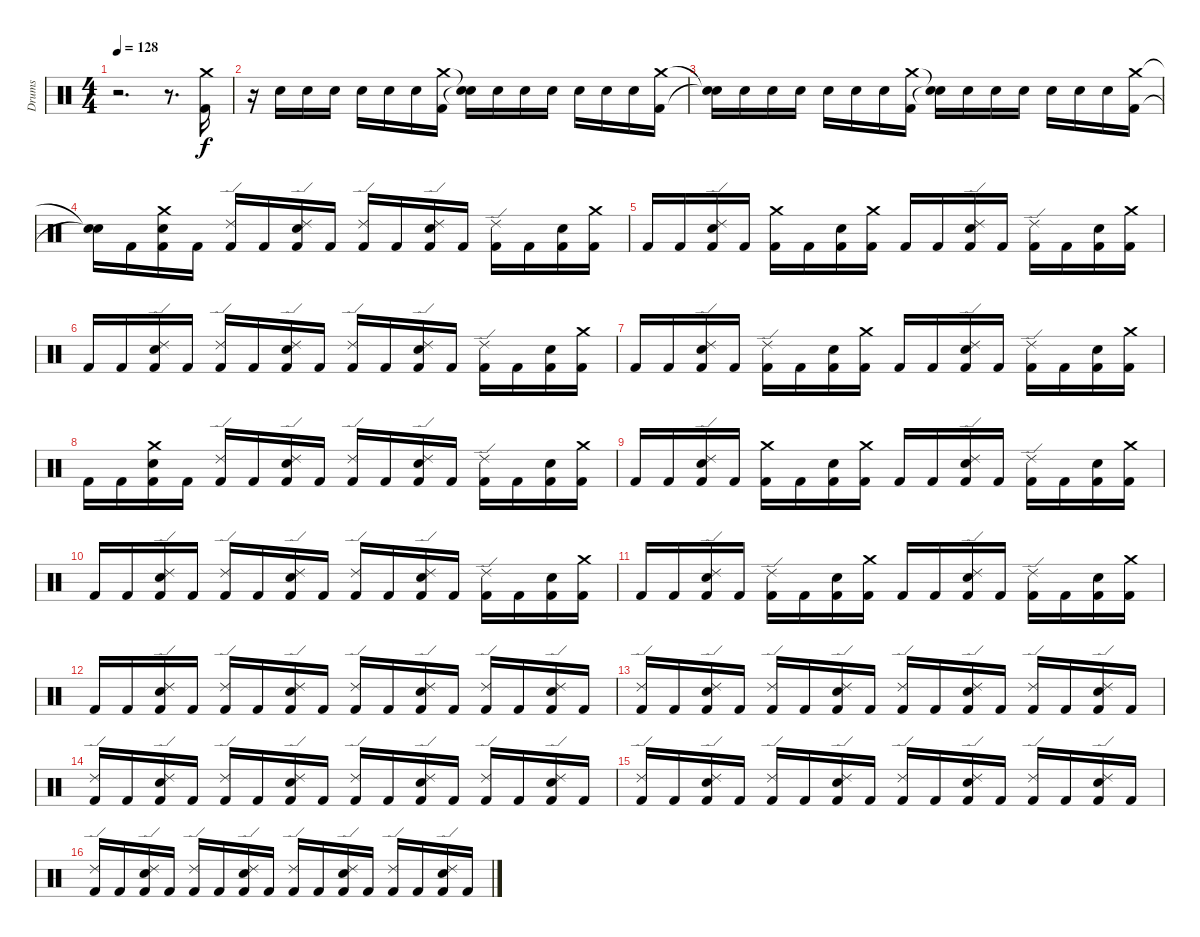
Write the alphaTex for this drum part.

\track ("Drums" "Drums") {instrument percussion}
\staff {score}
\articulation defaults
\ts (4 4)
\tempo 128
\clef neutral
\ks c
r.2{d dy f} r.8{d} ("Crash medium (hit)" "Kick (hit) 2").16 |
r.16 "Snare (hit) 2".16 "Snare (hit) 2".16 "Snare (hit) 2".16 "Snare (hit) 2".16 "Snare (hit) 2".16 "Snare (hit) 2".16 ("Crash medium (hit)" "Kick (hit) 2").16 ("Snare (hit)"{t} "Snare (hit)"{t}).16 "Snare (hit) 2".16 "Snare (hit) 2".16 "Snare (hit) 2".16 "Snare (hit) 2".16 "Snare (hit) 2".16 "Snare (hit) 2".16 ("Crash medium (hit)" "Kick (hit) 2").16 |
("Snare (hit)"{t} "Snare (hit)"{t}).16 "Snare (hit) 2".16 "Snare (hit) 2".16 "Snare (hit) 2".16 "Snare (hit) 2".16 "Snare (hit) 2".16 "Snare (hit) 2".16 ("Crash medium (hit)" "Kick (hit) 2").16 ("Snare (hit)"{t} "Snare (hit)"{t}).16 "Snare (hit) 2".16 "Snare (hit) 2".16 "Snare (hit) 2".16 "Snare (hit) 2".16 "Snare (hit) 2".16 "Snare (hit) 2".16 ("Crash medium (hit)" "Kick (hit) 2").16 |
("Snare (hit)"{t} "Snare (hit)"{t}).16 "Kick (hit) 2".16 ("Crash medium (hit)" "Snare (hit) 2" "Kick (hit) 2").16 "Kick (hit) 2".16 ("Ride (edge) 2" "Kick (hit) 2").16 "Kick (hit) 2".16 ("Ride (edge) 2" "Snare (hit) 2" "Kick (hit) 2").16 "Kick (hit) 2".16 ("Ride (edge) 2" "Kick (hit) 2").16 "Kick (hit) 2".16 ("Ride (edge) 2" "Snare (hit) 2" "Kick (hit) 2").16 "Kick (hit) 2".16 ("Ride (edge) 2" "Kick (hit) 2").16 "Kick (hit) 2".16 ("Snare (hit) 2" "Kick (hit) 2").16 ("Crash medium (hit)" "Kick (hit) 2").16 |
"Kick (hit) 2".16 "Kick (hit) 2".16 ("Ride (edge) 2" "Snare (hit) 2" "Kick (hit) 2").16 "Kick (hit) 2".16 ("Crash medium (hit)" "Kick (hit) 2").16 "Kick (hit) 2".16 ("Snare (hit) 2" "Kick (hit) 2").16 ("Crash medium (hit)" "Kick (hit) 2").16 "Kick (hit) 2".16 "Kick (hit) 2".16 ("Ride (edge) 2" "Snare (hit) 2" "Kick (hit) 2").16 "Kick (hit) 2".16 ("Ride (edge) 2" "Kick (hit) 2").16 "Kick (hit) 2".16 ("Snare (hit) 2" "Kick (hit) 2").16 ("Crash medium (hit)" "Kick (hit) 2").16 |
"Kick (hit) 2".16 "Kick (hit) 2".16 ("Ride (edge) 2" "Snare (hit) 2" "Kick (hit) 2").16 "Kick (hit) 2".16 ("Ride (edge) 2" "Kick (hit) 2").16 "Kick (hit) 2".16 ("Ride (edge) 2" "Snare (hit) 2" "Kick (hit) 2").16 "Kick (hit) 2".16 ("Ride (edge) 2" "Kick (hit) 2").16 "Kick (hit) 2".16 ("Ride (edge) 2" "Snare (hit) 2" "Kick (hit) 2").16 "Kick (hit) 2".16 ("Ride (edge) 2" "Kick (hit) 2").16 "Kick (hit) 2".16 ("Snare (hit) 2" "Kick (hit) 2").16 ("Crash medium (hit)" "Kick (hit) 2").16 |
"Kick (hit) 2".16 "Kick (hit) 2".16 ("Ride (edge) 2" "Snare (hit) 2" "Kick (hit) 2").16 "Kick (hit) 2".16 ("Ride (edge) 2" "Kick (hit) 2").16 "Kick (hit) 2".16 ("Snare (hit) 2" "Kick (hit) 2").16 ("Crash medium (hit)" "Kick (hit) 2").16 "Kick (hit) 2".16 "Kick (hit) 2".16 ("Ride (edge) 2" "Snare (hit) 2" "Kick (hit) 2").16 "Kick (hit) 2".16 ("Ride (edge) 2" "Kick (hit) 2").16 "Kick (hit) 2".16 ("Snare (hit) 2" "Kick (hit) 2").16 ("Crash medium (hit)" "Kick (hit) 2").16 |
"Kick (hit) 2".16 "Kick (hit) 2".16 ("Crash medium (hit)" "Snare (hit) 2" "Kick (hit) 2").16 "Kick (hit) 2".16 ("Ride (edge) 2" "Kick (hit) 2").16 "Kick (hit) 2".16 ("Ride (edge) 2" "Snare (hit) 2" "Kick (hit) 2").16 "Kick (hit) 2".16 ("Ride (edge) 2" "Kick (hit) 2").16 "Kick (hit) 2".16 ("Ride (edge) 2" "Snare (hit) 2" "Kick (hit) 2").16 "Kick (hit) 2".16 ("Ride (edge) 2" "Kick (hit) 2").16 "Kick (hit) 2".16 ("Snare (hit) 2" "Kick (hit) 2").16 ("Crash medium (hit)" "Kick (hit) 2").16 |
"Kick (hit) 2".16 "Kick (hit) 2".16 ("Ride (edge) 2" "Snare (hit) 2" "Kick (hit) 2").16 "Kick (hit) 2".16 ("Crash medium (hit)" "Kick (hit) 2").16 "Kick (hit) 2".16 ("Snare (hit) 2" "Kick (hit) 2").16 ("Crash medium (hit)" "Kick (hit) 2").16 "Kick (hit) 2".16 "Kick (hit) 2".16 ("Ride (edge) 2" "Snare (hit) 2" "Kick (hit) 2").16 "Kick (hit) 2".16 ("Ride (edge) 2" "Kick (hit) 2").16 "Kick (hit) 2".16 ("Snare (hit) 2" "Kick (hit) 2").16 ("Crash medium (hit)" "Kick (hit) 2").16 |
"Kick (hit) 2".16 "Kick (hit) 2".16 ("Ride (edge) 2" "Snare (hit) 2" "Kick (hit) 2").16 "Kick (hit) 2".16 ("Ride (edge) 2" "Kick (hit) 2").16 "Kick (hit) 2".16 ("Ride (edge) 2" "Snare (hit) 2" "Kick (hit) 2").16 "Kick (hit) 2".16 ("Ride (edge) 2" "Kick (hit) 2").16 "Kick (hit) 2".16 ("Ride (edge) 2" "Snare (hit) 2" "Kick (hit) 2").16 "Kick (hit) 2".16 ("Ride (edge) 2" "Kick (hit) 2").16 "Kick (hit) 2".16 ("Snare (hit) 2" "Kick (hit) 2").16 ("Crash medium (hit)" "Kick (hit) 2").16 |
"Kick (hit) 2".16 "Kick (hit) 2".16 ("Ride (edge) 2" "Snare (hit) 2" "Kick (hit) 2").16 "Kick (hit) 2".16 ("Ride (edge) 2" "Kick (hit) 2").16 "Kick (hit) 2".16 ("Snare (hit) 2" "Kick (hit) 2").16 ("Crash medium (hit)" "Kick (hit) 2").16 "Kick (hit) 2".16 "Kick (hit) 2".16 ("Ride (edge) 2" "Snare (hit) 2" "Kick (hit) 2").16 "Kick (hit) 2".16 ("Ride (edge) 2" "Kick (hit) 2").16 "Kick (hit) 2".16 ("Snare (hit) 2" "Kick (hit) 2").16 ("Crash medium (hit)" "Kick (hit) 2").16 |
"Kick (hit) 2".16 "Kick (hit) 2".16 ("Ride (edge) 2" "Snare (hit) 2" "Kick (hit) 2").16 "Kick (hit) 2".16 ("Ride (edge) 2" "Kick (hit) 2").16 "Kick (hit) 2".16 ("Ride (edge) 2" "Snare (hit) 2" "Kick (hit) 2").16 "Kick (hit) 2".16 ("Ride (edge) 2" "Kick (hit) 2").16 "Kick (hit) 2".16 ("Ride (edge) 2" "Snare (hit) 2" "Kick (hit) 2").16 "Kick (hit) 2".16 ("Ride (edge) 2" "Kick (hit) 2").16 "Kick (hit) 2".16 ("Ride (edge) 2" "Snare (hit) 2" "Kick (hit) 2").16 "Kick (hit) 2".16 |
("Ride (edge) 2" "Kick (hit) 2").16 "Kick (hit) 2".16 ("Ride (edge) 2" "Snare (hit) 2" "Kick (hit) 2").16 "Kick (hit) 2".16 ("Ride (edge) 2" "Kick (hit) 2").16 "Kick (hit) 2".16 ("Ride (edge) 2" "Snare (hit) 2" "Kick (hit) 2").16 "Kick (hit) 2".16 ("Ride (edge) 2" "Kick (hit) 2").16 "Kick (hit) 2".16 ("Ride (edge) 2" "Snare (hit) 2" "Kick (hit) 2").16 "Kick (hit) 2".16 ("Ride (edge) 2" "Kick (hit) 2").16 "Kick (hit) 2".16 ("Ride (edge) 2" "Snare (hit) 2" "Kick (hit) 2").16 "Kick (hit) 2".16 |
("Ride (edge) 2" "Kick (hit) 2").16 "Kick (hit) 2".16 ("Ride (edge) 2" "Snare (hit) 2" "Kick (hit) 2").16 "Kick (hit) 2".16 ("Ride (edge) 2" "Kick (hit) 2").16 "Kick (hit) 2".16 ("Ride (edge) 2" "Snare (hit) 2" "Kick (hit) 2").16 "Kick (hit) 2".16 ("Ride (edge) 2" "Kick (hit) 2").16 "Kick (hit) 2".16 ("Ride (edge) 2" "Snare (hit) 2" "Kick (hit) 2").16 "Kick (hit) 2".16 ("Ride (edge) 2" "Kick (hit) 2").16 "Kick (hit) 2".16 ("Ride (edge) 2" "Snare (hit) 2" "Kick (hit) 2").16 "Kick (hit) 2".16 |
("Ride (edge) 2" "Kick (hit) 2").16 "Kick (hit) 2".16 ("Ride (edge) 2" "Snare (hit) 2" "Kick (hit) 2").16 "Kick (hit) 2".16 ("Ride (edge) 2" "Kick (hit) 2").16 "Kick (hit) 2".16 ("Ride (edge) 2" "Snare (hit) 2" "Kick (hit) 2").16 "Kick (hit) 2".16 ("Ride (edge) 2" "Kick (hit) 2").16 "Kick (hit) 2".16 ("Ride (edge) 2" "Snare (hit) 2" "Kick (hit) 2").16 "Kick (hit) 2".16 ("Ride (edge) 2" "Kick (hit) 2").16 "Kick (hit) 2".16 ("Ride (edge) 2" "Snare (hit) 2" "Kick (hit) 2").16 "Kick (hit) 2".16 |
("Ride (edge) 2" "Kick (hit) 2").16 "Kick (hit) 2".16 ("Ride (edge) 2" "Snare (hit) 2" "Kick (hit) 2").16 "Kick (hit) 2".16 ("Ride (edge) 2" "Kick (hit) 2").16 "Kick (hit) 2".16 ("Ride (edge) 2" "Snare (hit) 2" "Kick (hit) 2").16 "Kick (hit) 2".16 ("Ride (edge) 2" "Kick (hit) 2").16 "Kick (hit) 2".16 ("Ride (edge) 2" "Snare (hit) 2" "Kick (hit) 2").16 "Kick (hit) 2".16 ("Ride (edge) 2" "Kick (hit) 2").16 "Kick (hit) 2".16 ("Ride (edge) 2" "Snare (hit) 2" "Kick (hit) 2").16 "Kick (hit) 2".16
